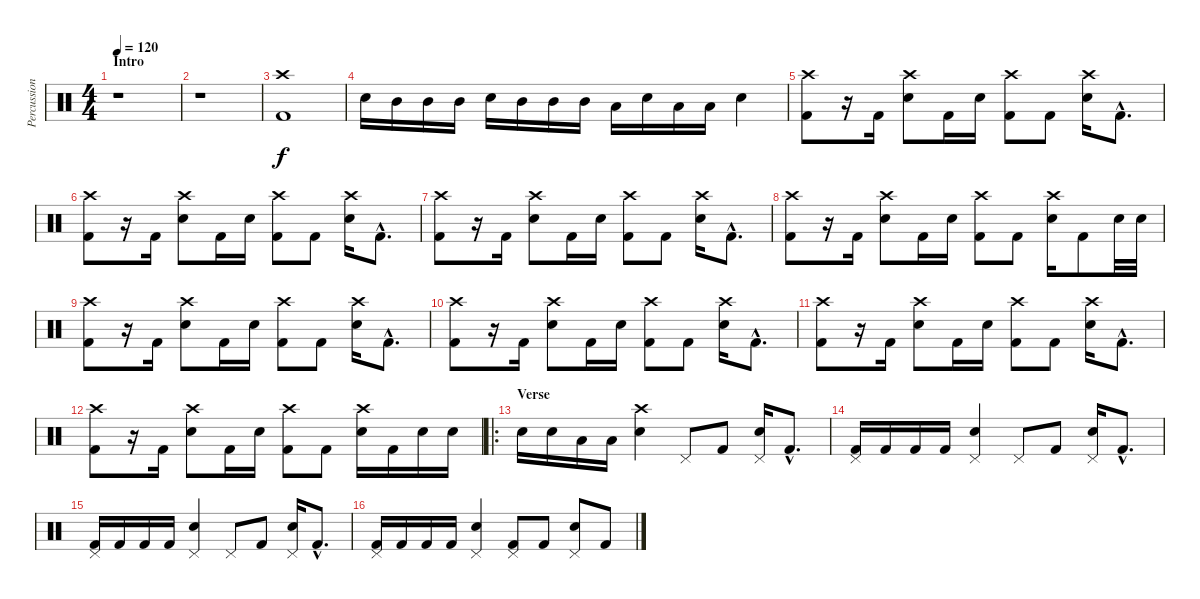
\track ("Percussion" "Percussion") {instrument percussion}
\staff {score}
\articulation defaults
\ts (4 4)
\section ("" "Intro")
\tempo 120
\clef neutral
\ks c
r.1{dy f} |
r.1 |
("Crash high (hit)" "Kick (hit) 2").1 |
"Snare (hit) 2".16 "Mid Tom (hit)".16 "Mid Tom (hit)".16 "Mid Tom (hit)".16 "Snare (hit) 2".16 "Mid Tom (hit)".16 "Mid Tom (hit)".16 "Mid Tom (hit)".16 "Low Tom (hit)".16 "Snare (hit) 2".16 "Low Tom (hit)".16 "Low Tom (hit)".16 "Snare (hit) 2".4 |
("Crash high (hit)" "Kick (hit) 2").8 r.16 "Kick (hit) 2".16 ("Crash high (hit)" "Snare (hit) 2").8 "Kick (hit) 2".16 "Snare (hit) 2".16 ("Crash high (hit)" "Kick (hit) 2").8 "Kick (hit) 2".8 ("Crash high (hit)" "Snare (hit) 2").16 "Kick (hit) 2"{hac}.8{d} |
("Crash high (hit)" "Kick (hit) 2").8 r.16 "Kick (hit) 2".16 ("Crash high (hit)" "Snare (hit) 2").8 "Kick (hit) 2".16 "Snare (hit) 2".16 ("Crash high (hit)" "Kick (hit) 2").8 "Kick (hit) 2".8 ("Crash high (hit)" "Snare (hit) 2").16 "Kick (hit) 2"{hac}.8{d} |
("Crash high (hit)" "Kick (hit) 2").8 r.16 "Kick (hit) 2".16 ("Crash high (hit)" "Snare (hit) 2").8 "Kick (hit) 2".16 "Snare (hit) 2".16 ("Crash high (hit)" "Kick (hit) 2").8 "Kick (hit) 2".8 ("Crash high (hit)" "Snare (hit) 2").16 "Kick (hit) 2"{hac}.8{d} |
("Crash high (hit)" "Kick (hit) 2").8 r.16 "Kick (hit) 2".16 ("Crash high (hit)" "Snare (hit) 2").8 "Kick (hit) 2".16 "Snare (hit) 2".16 ("Crash high (hit)" "Kick (hit) 2").8 "Kick (hit) 2".8 ("Crash high (hit)" "Snare (hit) 2").16 "Kick (hit) 2".8 "Snare (hit) 2".32 "Snare (hit) 2".32 |
("Crash high (hit)" "Kick (hit) 2").8 r.16 "Kick (hit) 2".16 ("Crash high (hit)" "Snare (hit) 2").8 "Kick (hit) 2".16 "Snare (hit) 2".16 ("Crash high (hit)" "Kick (hit) 2").8 "Kick (hit) 2".8 ("Crash high (hit)" "Snare (hit) 2").16 "Kick (hit) 2"{hac}.8{d} |
("Crash high (hit)" "Kick (hit) 2").8 r.16 "Kick (hit) 2".16 ("Crash high (hit)" "Snare (hit) 2").8 "Kick (hit) 2".16 "Snare (hit) 2".16 ("Crash high (hit)" "Kick (hit) 2").8 "Kick (hit) 2".8 ("Crash high (hit)" "Snare (hit) 2").16 "Kick (hit) 2"{hac}.8{d} |
("Crash high (hit)" "Kick (hit) 2").8 r.16 "Kick (hit) 2".16 ("Crash high (hit)" "Snare (hit) 2").8 "Kick (hit) 2".16 "Snare (hit) 2".16 ("Crash high (hit)" "Kick (hit) 2").8 "Kick (hit) 2".8 ("Crash high (hit)" "Snare (hit) 2").16 "Kick (hit) 2"{hac}.8{d} |
("Crash high (hit)" "Kick (hit) 2").8 r.16 "Kick (hit) 2".16 ("Crash high (hit)" "Snare (hit) 2").8 "Kick (hit) 2".16 "Snare (hit) 2".16 ("Crash high (hit)" "Kick (hit) 2").8 "Kick (hit) 2".8 ("Crash high (hit)" "Snare (hit) 2").16 "Kick (hit) 2".16 "Snare (hit) 2".16 "Snare (hit) 2".16 |
\ro
\section ("" "Verse")
"Snare (hit) 2".16 "Snare (hit) 2".16 "Low Tom (hit)".16 "Low Tom (hit)".16 ("Crash high (hit)" "Snare (hit) 2").4 "Pedal Hi-Hat (hit)".8 "Kick (hit) 2".8 ("Pedal Hi-Hat (hit)" "Snare (hit) 2").16 "Kick (hit) 2"{hac}.8{d} |
("Pedal Hi-Hat (hit)" "Kick (hit) 2").16 "Kick (hit) 2".16 "Kick (hit) 2".16 "Kick (hit) 2".16 ("Pedal Hi-Hat (hit)" "Snare (hit) 2").4 "Pedal Hi-Hat (hit)".8 "Kick (hit) 2".8 ("Pedal Hi-Hat (hit)" "Snare (hit) 2").16 "Kick (hit) 2"{hac}.8{d} |
("Pedal Hi-Hat (hit)" "Kick (hit) 2").16 "Kick (hit) 2".16 "Kick (hit) 2".16 "Kick (hit) 2".16 ("Pedal Hi-Hat (hit)" "Snare (hit) 2").4 "Pedal Hi-Hat (hit)".8 "Kick (hit) 2".8 ("Pedal Hi-Hat (hit)" "Snare (hit) 2").16 "Kick (hit) 2"{hac}.8{d} |
("Pedal Hi-Hat (hit)" "Kick (hit) 2").16 "Kick (hit) 2".16 "Kick (hit) 2".16 "Kick (hit) 2".16 ("Pedal Hi-Hat (hit)" "Snare (hit) 2").4 ("Pedal Hi-Hat (hit)" "Kick (hit) 2").8 "Kick (hit) 2".8 ("Pedal Hi-Hat (hit)" "Snare (hit) 2").8 "Kick (hit) 2".8
